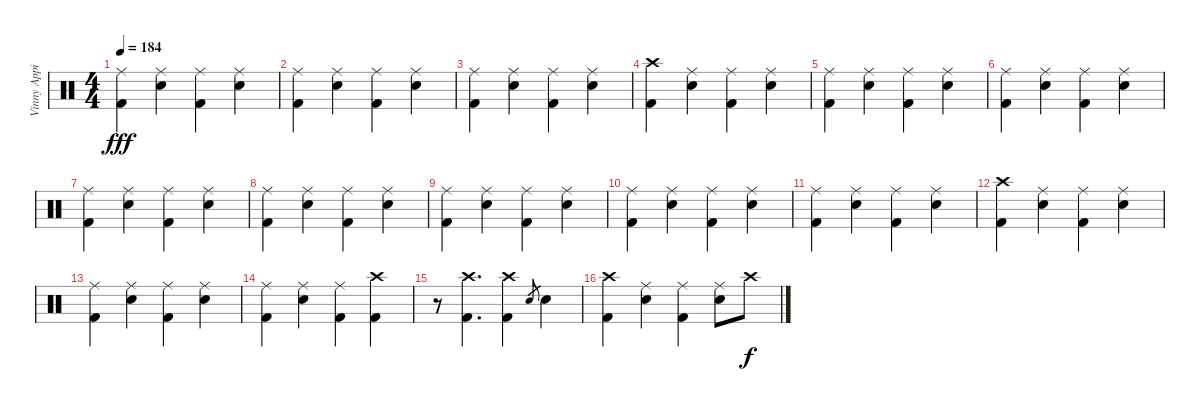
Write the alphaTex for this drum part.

\track ("Vinny Appice" "Vinny Appi") {instrument percussion}
\staff {score}
\articulation defaults
\ts (4 4)
\tempo 184
\clef neutral
\ks c
("Ride (middle)" "Kick (hit) 2").4{dy fff} ("Ride (middle)" "Snare (hit) 2").4 ("Ride (middle)" "Kick (hit) 2").4 ("Ride (middle)" "Snare (hit) 2").4 |
("Ride (middle)" "Kick (hit) 2").4 ("Ride (middle)" "Snare (hit) 2").4 ("Ride (middle)" "Kick (hit) 2").4 ("Ride (middle)" "Snare (hit) 2").4 |
("Ride (middle)" "Kick (hit) 2").4 ("Ride (middle)" "Snare (hit) 2").4 ("Ride (middle)" "Kick (hit) 2").4 ("Ride (middle)" "Snare (hit) 2").4 |
("Crash high (hit)" "Kick (hit) 2").4 ("Ride (middle)" "Snare (hit) 2").4 ("Ride (middle)" "Kick (hit) 2").4 ("Ride (middle)" "Snare (hit) 2").4 |
("Ride (middle)" "Kick (hit) 2").4 ("Ride (middle)" "Snare (hit) 2").4 ("Ride (middle)" "Kick (hit) 2").4 ("Ride (middle)" "Snare (hit) 2").4 |
("Ride (middle)" "Kick (hit) 2").4 ("Ride (middle)" "Snare (hit) 2").4 ("Ride (middle)" "Kick (hit) 2").4 ("Ride (middle)" "Snare (hit) 2").4 |
("Ride (middle)" "Kick (hit) 2").4 ("Ride (middle)" "Snare (hit) 2").4 ("Ride (middle)" "Kick (hit) 2").4 ("Ride (middle)" "Snare (hit) 2").4 |
("Ride (middle)" "Kick (hit) 2").4 ("Ride (middle)" "Snare (hit) 2").4 ("Ride (middle)" "Kick (hit) 2").4 ("Ride (middle)" "Snare (hit) 2").4 |
("Ride (middle)" "Kick (hit) 2").4 ("Ride (middle)" "Snare (hit) 2").4 ("Ride (middle)" "Kick (hit) 2").4 ("Ride (middle)" "Snare (hit) 2").4 |
("Ride (middle)" "Kick (hit) 2").4 ("Ride (middle)" "Snare (hit) 2").4 ("Ride (middle)" "Kick (hit) 2").4 ("Ride (middle)" "Snare (hit) 2").4 |
("Ride (middle)" "Kick (hit) 2").4 ("Ride (middle)" "Snare (hit) 2").4 ("Ride (middle)" "Kick (hit) 2").4 ("Ride (middle)" "Snare (hit) 2").4 |
("Crash high (hit)" "Kick (hit) 2").4 ("Ride (middle)" "Snare (hit) 2").4 ("Ride (middle)" "Kick (hit) 2").4 ("Ride (middle)" "Snare (hit) 2").4 |
("Ride (middle)" "Kick (hit) 2").4 ("Ride (middle)" "Snare (hit) 2").4 ("Ride (middle)" "Kick (hit) 2").4 ("Ride (middle)" "Snare (hit) 2").4 |
("Ride (middle)" "Kick (hit) 2").4 ("Ride (middle)" "Snare (hit) 2").4 ("Ride (middle)" "Kick (hit) 2").4 ("Crash high (hit)" "Kick (hit) 2").4 |
r.8 ("Crash high (hit)" "Kick (hit) 2").4{d} ("Crash high (hit)" "Kick (hit) 2").4 "Snare (hit) 2".8{gr} "Snare (hit) 2".4 |
("Crash high (hit)" "Kick (hit) 2").4 ("Ride (middle)" "Snare (hit) 2").4 ("Ride (middle)" "Kick (hit) 2").4 ("Ride (middle)" "Snare (hit) 2").8 "Crash high (hit)".8{dy f}
